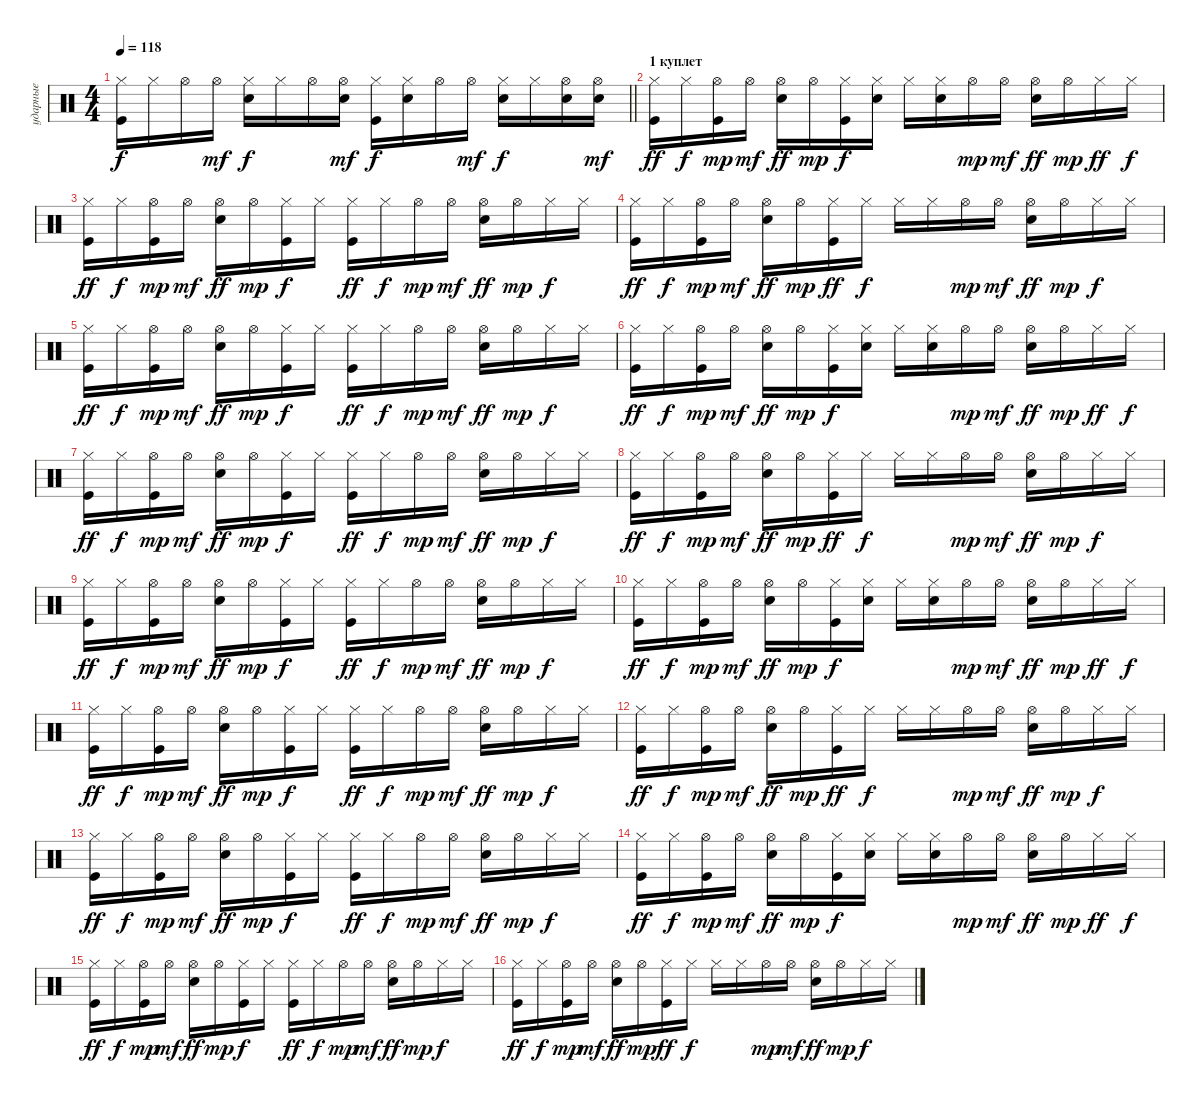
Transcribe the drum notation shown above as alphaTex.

\track ("ударные" "ударные") {instrument percussion}
\staff {score}
\articulation defaults
\ts (4 4)
\tempo 118
\clef neutral
\barLineRight lightlight
\ks c
("Kick (hit)" "Hi-Hat (closed)").16{dy f} "Hi-Hat (closed)".16 "Hi-Hat (open)".16 "Hi-Hat (open)".16{dy mf} ("Electric Snare (hit)" "Hi-Hat (closed)").16{dy f} "Hi-Hat (closed)".16 "Hi-Hat (open)".16 ("Hi-Hat (open)" "Electric Snare (hit)").16{dy mf} ("Hi-Hat (closed)" "Kick (hit)").16{dy f} ("Electric Snare (hit)" "Hi-Hat (closed)").16 "Hi-Hat (open)".16 "Hi-Hat (open)".16{dy mf} ("Electric Snare (hit)" "Hi-Hat (closed)").16{dy f} "Hi-Hat (closed)".16 ("Electric Snare (hit)" "Hi-Hat (open)").16 ("Electric Snare (hit)" "Hi-Hat (open)").16{dy mf} |
\section ("" "1 куплет")
("Kick (hit)" "Hi-Hat (closed)").16{dy ff} "Hi-Hat (closed)".16{dy f} ("Kick (hit)" "Hi-Hat (open)").16{dy mp} "Hi-Hat (open)".16{dy mf} ("Electric Snare (hit)" "Hi-Hat (open)").16{dy ff} "Hi-Hat (open)".16{dy mp} ("Kick (hit)" "Hi-Hat (closed)").16{dy f} ("Electric Snare (hit)" "Hi-Hat (closed)").16 "Hi-Hat (closed)".16 ("Electric Snare (hit)" "Hi-Hat (closed)").16 "Hi-Hat (open)".16{dy mp} "Hi-Hat (open)".16{dy mf} ("Hi-Hat (open)" "Electric Snare (hit)").16{dy ff} "Hi-Hat (open)".16{dy mp} "Hi-Hat (closed)".16{dy ff} "Hi-Hat (closed)".16{dy f} |
("Kick (hit)" "Hi-Hat (closed)").16{dy ff} "Hi-Hat (closed)".16{dy f} ("Kick (hit)" "Hi-Hat (open)").16{dy mp} "Hi-Hat (open)".16{dy mf} ("Electric Snare (hit)" "Hi-Hat (open)").16{dy ff} "Hi-Hat (open)".16{dy mp} ("Kick (hit)" "Hi-Hat (closed)").16{dy f} "Hi-Hat (closed)".16 ("Kick (hit)" "Hi-Hat (closed)").16{dy ff} "Hi-Hat (closed)".16{dy f} "Hi-Hat (open)".16{dy mp} "Hi-Hat (open)".16{dy mf} ("Electric Snare (hit)" "Hi-Hat (open)").16{dy ff} "Hi-Hat (open)".16{dy mp} "Hi-Hat (closed)".16{dy f} "Hi-Hat (closed)".16 |
("Kick (hit)" "Hi-Hat (closed)").16{dy ff} "Hi-Hat (closed)".16{dy f} ("Kick (hit)" "Hi-Hat (open)").16{dy mp} "Hi-Hat (open)".16{dy mf} ("Electric Snare (hit)" "Hi-Hat (open)").16{dy ff} "Hi-Hat (open)".16{dy mp} ("Kick (hit)" "Hi-Hat (closed)").16{dy ff} "Hi-Hat (closed)".16{dy f} "Hi-Hat (closed)".16 "Hi-Hat (closed)".16 "Hi-Hat (open)".16{dy mp} "Hi-Hat (open)".16{dy mf} ("Electric Snare (hit)" "Hi-Hat (open)").16{dy ff} "Hi-Hat (open)".16{dy mp} "Hi-Hat (closed)".16{dy f} "Hi-Hat (closed)".16 |
("Kick (hit)" "Hi-Hat (closed)").16{dy ff} "Hi-Hat (closed)".16{dy f} ("Kick (hit)" "Hi-Hat (open)").16{dy mp} "Hi-Hat (open)".16{dy mf} ("Electric Snare (hit)" "Hi-Hat (open)").16{dy ff} "Hi-Hat (open)".16{dy mp} ("Kick (hit)" "Hi-Hat (closed)").16{dy f} "Hi-Hat (closed)".16 ("Kick (hit)" "Hi-Hat (closed)").16{dy ff} "Hi-Hat (closed)".16{dy f} "Hi-Hat (open)".16{dy mp} "Hi-Hat (open)".16{dy mf} ("Electric Snare (hit)" "Hi-Hat (open)").16{dy ff} "Hi-Hat (open)".16{dy mp} "Hi-Hat (closed)".16{dy f} "Hi-Hat (closed)".16 |
("Kick (hit)" "Hi-Hat (closed)").16{dy ff} "Hi-Hat (closed)".16{dy f} ("Kick (hit)" "Hi-Hat (open)").16{dy mp} "Hi-Hat (open)".16{dy mf} ("Electric Snare (hit)" "Hi-Hat (open)").16{dy ff} "Hi-Hat (open)".16{dy mp} ("Kick (hit)" "Hi-Hat (closed)").16{dy f} ("Electric Snare (hit)" "Hi-Hat (closed)").16 "Hi-Hat (closed)".16 ("Electric Snare (hit)" "Hi-Hat (closed)").16 "Hi-Hat (open)".16{dy mp} "Hi-Hat (open)".16{dy mf} ("Hi-Hat (open)" "Electric Snare (hit)").16{dy ff} "Hi-Hat (open)".16{dy mp} "Hi-Hat (closed)".16{dy ff} "Hi-Hat (closed)".16{dy f} |
("Kick (hit)" "Hi-Hat (closed)").16{dy ff} "Hi-Hat (closed)".16{dy f} ("Kick (hit)" "Hi-Hat (open)").16{dy mp} "Hi-Hat (open)".16{dy mf} ("Electric Snare (hit)" "Hi-Hat (open)").16{dy ff} "Hi-Hat (open)".16{dy mp} ("Kick (hit)" "Hi-Hat (closed)").16{dy f} "Hi-Hat (closed)".16 ("Kick (hit)" "Hi-Hat (closed)").16{dy ff} "Hi-Hat (closed)".16{dy f} "Hi-Hat (open)".16{dy mp} "Hi-Hat (open)".16{dy mf} ("Electric Snare (hit)" "Hi-Hat (open)").16{dy ff} "Hi-Hat (open)".16{dy mp} "Hi-Hat (closed)".16{dy f} "Hi-Hat (closed)".16 |
("Kick (hit)" "Hi-Hat (closed)").16{dy ff} "Hi-Hat (closed)".16{dy f} ("Kick (hit)" "Hi-Hat (open)").16{dy mp} "Hi-Hat (open)".16{dy mf} ("Electric Snare (hit)" "Hi-Hat (open)").16{dy ff} "Hi-Hat (open)".16{dy mp} ("Kick (hit)" "Hi-Hat (closed)").16{dy ff} "Hi-Hat (closed)".16{dy f} "Hi-Hat (closed)".16 "Hi-Hat (closed)".16 "Hi-Hat (open)".16{dy mp} "Hi-Hat (open)".16{dy mf} ("Electric Snare (hit)" "Hi-Hat (open)").16{dy ff} "Hi-Hat (open)".16{dy mp} "Hi-Hat (closed)".16{dy f} "Hi-Hat (closed)".16 |
("Kick (hit)" "Hi-Hat (closed)").16{dy ff} "Hi-Hat (closed)".16{dy f} ("Kick (hit)" "Hi-Hat (open)").16{dy mp} "Hi-Hat (open)".16{dy mf} ("Electric Snare (hit)" "Hi-Hat (open)").16{dy ff} "Hi-Hat (open)".16{dy mp} ("Kick (hit)" "Hi-Hat (closed)").16{dy f} "Hi-Hat (closed)".16 ("Kick (hit)" "Hi-Hat (closed)").16{dy ff} "Hi-Hat (closed)".16{dy f} "Hi-Hat (open)".16{dy mp} "Hi-Hat (open)".16{dy mf} ("Electric Snare (hit)" "Hi-Hat (open)").16{dy ff} "Hi-Hat (open)".16{dy mp} "Hi-Hat (closed)".16{dy f} "Hi-Hat (closed)".16 |
("Kick (hit)" "Hi-Hat (closed)").16{dy ff} "Hi-Hat (closed)".16{dy f} ("Kick (hit)" "Hi-Hat (open)").16{dy mp} "Hi-Hat (open)".16{dy mf} ("Electric Snare (hit)" "Hi-Hat (open)").16{dy ff} "Hi-Hat (open)".16{dy mp} ("Kick (hit)" "Hi-Hat (closed)").16{dy f} ("Electric Snare (hit)" "Hi-Hat (closed)").16 "Hi-Hat (closed)".16 ("Electric Snare (hit)" "Hi-Hat (closed)").16 "Hi-Hat (open)".16{dy mp} "Hi-Hat (open)".16{dy mf} ("Hi-Hat (open)" "Electric Snare (hit)").16{dy ff} "Hi-Hat (open)".16{dy mp} "Hi-Hat (closed)".16{dy ff} "Hi-Hat (closed)".16{dy f} |
("Kick (hit)" "Hi-Hat (closed)").16{dy ff} "Hi-Hat (closed)".16{dy f} ("Kick (hit)" "Hi-Hat (open)").16{dy mp} "Hi-Hat (open)".16{dy mf} ("Electric Snare (hit)" "Hi-Hat (open)").16{dy ff} "Hi-Hat (open)".16{dy mp} ("Kick (hit)" "Hi-Hat (closed)").16{dy f} "Hi-Hat (closed)".16 ("Kick (hit)" "Hi-Hat (closed)").16{dy ff} "Hi-Hat (closed)".16{dy f} "Hi-Hat (open)".16{dy mp} "Hi-Hat (open)".16{dy mf} ("Electric Snare (hit)" "Hi-Hat (open)").16{dy ff} "Hi-Hat (open)".16{dy mp} "Hi-Hat (closed)".16{dy f} "Hi-Hat (closed)".16 |
("Kick (hit)" "Hi-Hat (closed)").16{dy ff} "Hi-Hat (closed)".16{dy f} ("Kick (hit)" "Hi-Hat (open)").16{dy mp} "Hi-Hat (open)".16{dy mf} ("Electric Snare (hit)" "Hi-Hat (open)").16{dy ff} "Hi-Hat (open)".16{dy mp} ("Kick (hit)" "Hi-Hat (closed)").16{dy ff} "Hi-Hat (closed)".16{dy f} "Hi-Hat (closed)".16 "Hi-Hat (closed)".16 "Hi-Hat (open)".16{dy mp} "Hi-Hat (open)".16{dy mf} ("Electric Snare (hit)" "Hi-Hat (open)").16{dy ff} "Hi-Hat (open)".16{dy mp} "Hi-Hat (closed)".16{dy f} "Hi-Hat (closed)".16 |
("Kick (hit)" "Hi-Hat (closed)").16{dy ff} "Hi-Hat (closed)".16{dy f} ("Kick (hit)" "Hi-Hat (open)").16{dy mp} "Hi-Hat (open)".16{dy mf} ("Electric Snare (hit)" "Hi-Hat (open)").16{dy ff} "Hi-Hat (open)".16{dy mp} ("Kick (hit)" "Hi-Hat (closed)").16{dy f} "Hi-Hat (closed)".16 ("Kick (hit)" "Hi-Hat (closed)").16{dy ff} "Hi-Hat (closed)".16{dy f} "Hi-Hat (open)".16{dy mp} "Hi-Hat (open)".16{dy mf} ("Electric Snare (hit)" "Hi-Hat (open)").16{dy ff} "Hi-Hat (open)".16{dy mp} "Hi-Hat (closed)".16{dy f} "Hi-Hat (closed)".16 |
("Kick (hit)" "Hi-Hat (closed)").16{dy ff} "Hi-Hat (closed)".16{dy f} ("Kick (hit)" "Hi-Hat (open)").16{dy mp} "Hi-Hat (open)".16{dy mf} ("Electric Snare (hit)" "Hi-Hat (open)").16{dy ff} "Hi-Hat (open)".16{dy mp} ("Kick (hit)" "Hi-Hat (closed)").16{dy f} ("Electric Snare (hit)" "Hi-Hat (closed)").16 "Hi-Hat (closed)".16 ("Electric Snare (hit)" "Hi-Hat (closed)").16 "Hi-Hat (open)".16{dy mp} "Hi-Hat (open)".16{dy mf} ("Hi-Hat (open)" "Electric Snare (hit)").16{dy ff} "Hi-Hat (open)".16{dy mp} "Hi-Hat (closed)".16{dy ff} "Hi-Hat (closed)".16{dy f} |
("Kick (hit)" "Hi-Hat (closed)").16{dy ff} "Hi-Hat (closed)".16{dy f} ("Kick (hit)" "Hi-Hat (open)").16{dy mp} "Hi-Hat (open)".16{dy mf} ("Electric Snare (hit)" "Hi-Hat (open)").16{dy ff} "Hi-Hat (open)".16{dy mp} ("Kick (hit)" "Hi-Hat (closed)").16{dy f} "Hi-Hat (closed)".16 ("Kick (hit)" "Hi-Hat (closed)").16{dy ff} "Hi-Hat (closed)".16{dy f} "Hi-Hat (open)".16{dy mp} "Hi-Hat (open)".16{dy mf} ("Electric Snare (hit)" "Hi-Hat (open)").16{dy ff} "Hi-Hat (open)".16{dy mp} "Hi-Hat (closed)".16{dy f} "Hi-Hat (closed)".16 |
("Kick (hit)" "Hi-Hat (closed)").16{dy ff} "Hi-Hat (closed)".16{dy f} ("Kick (hit)" "Hi-Hat (open)").16{dy mp} "Hi-Hat (open)".16{dy mf} ("Electric Snare (hit)" "Hi-Hat (open)").16{dy ff} "Hi-Hat (open)".16{dy mp} ("Kick (hit)" "Hi-Hat (closed)").16{dy ff} "Hi-Hat (closed)".16{dy f} "Hi-Hat (closed)".16 "Hi-Hat (closed)".16 "Hi-Hat (open)".16{dy mp} "Hi-Hat (open)".16{dy mf} ("Electric Snare (hit)" "Hi-Hat (open)").16{dy ff} "Hi-Hat (open)".16{dy mp} "Hi-Hat (closed)".16{dy f} "Hi-Hat (closed)".16
